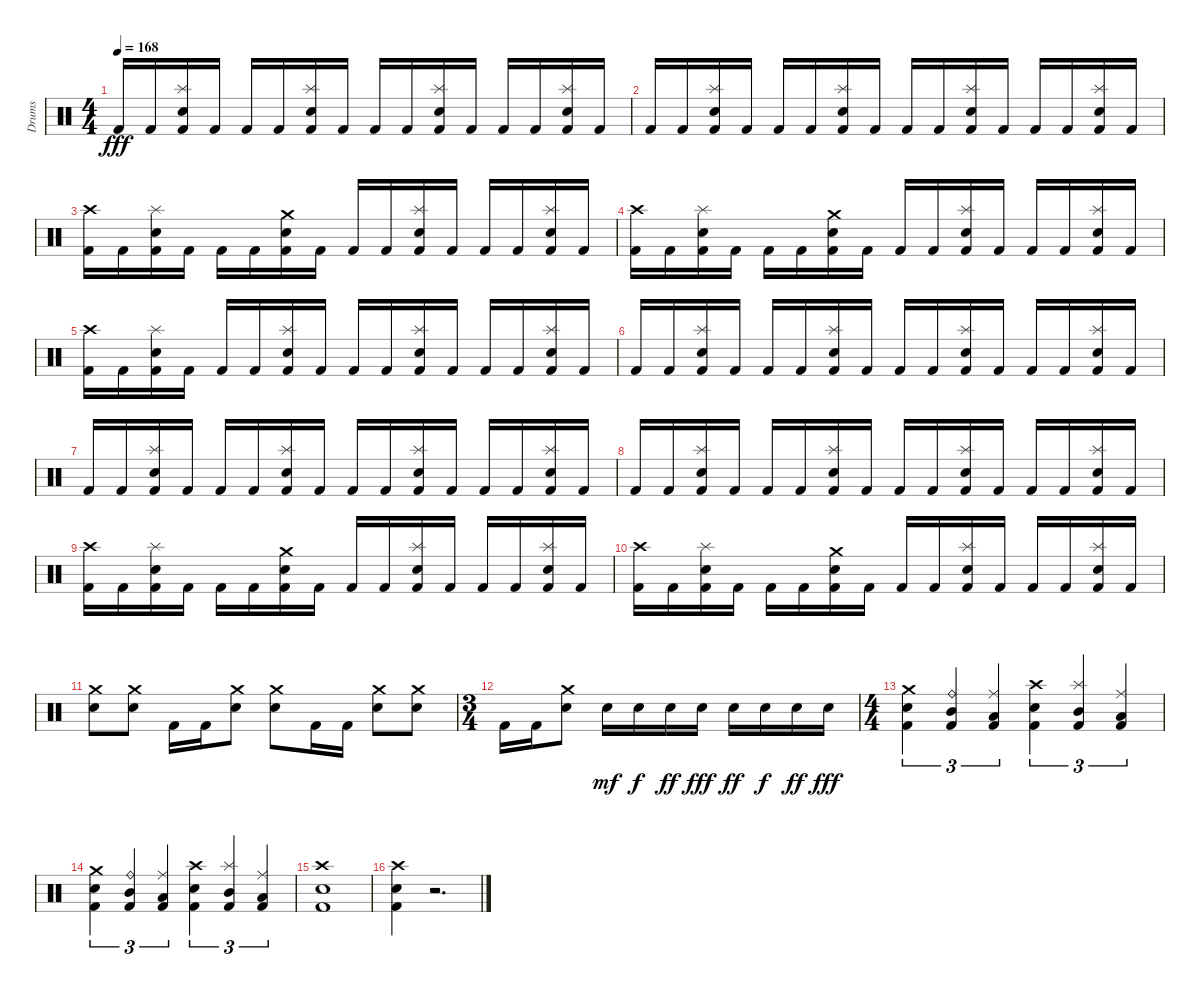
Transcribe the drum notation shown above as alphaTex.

\track ("Drums" "Drums") {instrument percussion}
\staff {score}
\articulation defaults
\ts (4 4)
\tempo 168
\clef neutral
\ks aminor "Kick (hit) 2".16{dy fff} "Kick (hit) 2".16
("Splash (hit)" "Snare (hit) 2" "Kick (hit) 2").16 "Kick (hit) 2".16 "Kick (hit) 2".16 "Kick (hit) 2".16 ("Splash (hit)" "Snare (hit) 2" "Kick (hit) 2").16 "Kick (hit) 2".16 "Kick (hit) 2".16 "Kick (hit) 2".16 ("Splash (hit)" "Snare (hit) 2" "Kick (hit) 2").16 "Kick (hit) 2".16 "Kick (hit) 2".16 "Kick (hit) 2".16 ("Splash (hit)" "Snare (hit) 2" "Kick (hit) 2").16 "Kick (hit) 2".16 |
"Kick (hit) 2".16 "Kick (hit) 2".16 ("Splash (hit)" "Snare (hit) 2" "Kick (hit) 2").16 "Kick (hit) 2".16 "Kick (hit) 2".16 "Kick (hit) 2".16 ("Splash (hit)" "Snare (hit) 2" "Kick (hit) 2").16 "Kick (hit) 2".16 "Kick (hit) 2".16 "Kick (hit) 2".16 ("Splash (hit)" "Snare (hit) 2" "Kick (hit) 2").16 "Kick (hit) 2".16 "Kick (hit) 2".16 "Kick (hit) 2".16 ("Splash (hit)" "Snare (hit) 2" "Kick (hit) 2").16 "Kick (hit) 2".16 |
("Crash high (hit)" "Kick (hit) 2").16 "Kick (hit) 2".16 ("Splash (hit)" "Snare (hit) 2" "Kick (hit) 2").16 "Kick (hit) 2".16 "Kick (hit) 2".16 "Kick (hit) 2".16 ("Crash medium (hit)" "Snare (hit) 2" "Kick (hit) 2").16 "Kick (hit) 2".16 "Kick (hit) 2".16 "Kick (hit) 2".16 ("Splash (hit)" "Snare (hit) 2" "Kick (hit) 2").16 "Kick (hit) 2".16 "Kick (hit) 2".16 "Kick (hit) 2".16 ("Splash (hit)" "Snare (hit) 2" "Kick (hit) 2").16 "Kick (hit) 2".16 |
("Crash high (hit)" "Kick (hit) 2").16 "Kick (hit) 2".16 ("Splash (hit)" "Snare (hit) 2" "Kick (hit) 2").16 "Kick (hit) 2".16 "Kick (hit) 2".16 "Kick (hit) 2".16 ("Crash medium (hit)" "Snare (hit) 2" "Kick (hit) 2").16 "Kick (hit) 2".16 "Kick (hit) 2".16 "Kick (hit) 2".16 ("Splash (hit)" "Snare (hit) 2" "Kick (hit) 2").16 "Kick (hit) 2".16 "Kick (hit) 2".16 "Kick (hit) 2".16 ("Splash (hit)" "Snare (hit) 2" "Kick (hit) 2").16 "Kick (hit) 2".16 |
("Crash high (hit)" "Kick (hit) 2").16 "Kick (hit) 2".16 ("Splash (hit)" "Snare (hit) 2" "Kick (hit) 2").16 "Kick (hit) 2".16 "Kick (hit) 2".16 "Kick (hit) 2".16 ("Splash (hit)" "Snare (hit) 2" "Kick (hit) 2").16 "Kick (hit) 2".16 "Kick (hit) 2".16 "Kick (hit) 2".16 ("Splash (hit)" "Snare (hit) 2" "Kick (hit) 2").16 "Kick (hit) 2".16 "Kick (hit) 2".16 "Kick (hit) 2".16 ("Splash (hit)" "Snare (hit) 2" "Kick (hit) 2").16 "Kick (hit) 2".16 |
"Kick (hit) 2".16 "Kick (hit) 2".16 ("Splash (hit)" "Snare (hit) 2" "Kick (hit) 2").16 "Kick (hit) 2".16 "Kick (hit) 2".16 "Kick (hit) 2".16 ("Splash (hit)" "Snare (hit) 2" "Kick (hit) 2").16 "Kick (hit) 2".16 "Kick (hit) 2".16 "Kick (hit) 2".16 ("Splash (hit)" "Snare (hit) 2" "Kick (hit) 2").16 "Kick (hit) 2".16 "Kick (hit) 2".16 "Kick (hit) 2".16 ("Splash (hit)" "Snare (hit) 2" "Kick (hit) 2").16 "Kick (hit) 2".16 |
"Kick (hit) 2".16 "Kick (hit) 2".16 ("Splash (hit)" "Snare (hit) 2" "Kick (hit) 2").16 "Kick (hit) 2".16 "Kick (hit) 2".16 "Kick (hit) 2".16 ("Splash (hit)" "Snare (hit) 2" "Kick (hit) 2").16 "Kick (hit) 2".16 "Kick (hit) 2".16 "Kick (hit) 2".16 ("Splash (hit)" "Snare (hit) 2" "Kick (hit) 2").16 "Kick (hit) 2".16 "Kick (hit) 2".16 "Kick (hit) 2".16 ("Splash (hit)" "Snare (hit) 2" "Kick (hit) 2").16 "Kick (hit) 2".16 |
"Kick (hit) 2".16 "Kick (hit) 2".16 ("Splash (hit)" "Snare (hit) 2" "Kick (hit) 2").16 "Kick (hit) 2".16 "Kick (hit) 2".16 "Kick (hit) 2".16 ("Splash (hit)" "Snare (hit) 2" "Kick (hit) 2").16 "Kick (hit) 2".16 "Kick (hit) 2".16 "Kick (hit) 2".16 ("Splash (hit)" "Snare (hit) 2" "Kick (hit) 2").16 "Kick (hit) 2".16 "Kick (hit) 2".16 "Kick (hit) 2".16 ("Splash (hit)" "Snare (hit) 2" "Kick (hit) 2").16 "Kick (hit) 2".16 |
("Crash high (hit)" "Kick (hit) 2").16 "Kick (hit) 2".16 ("Splash (hit)" "Snare (hit) 2" "Kick (hit) 2").16 "Kick (hit) 2".16 "Kick (hit) 2".16 "Kick (hit) 2".16 ("Crash medium (hit)" "Snare (hit) 2" "Kick (hit) 2").16 "Kick (hit) 2".16 "Kick (hit) 2".16 "Kick (hit) 2".16 ("Splash (hit)" "Snare (hit) 2" "Kick (hit) 2").16 "Kick (hit) 2".16 "Kick (hit) 2".16 "Kick (hit) 2".16 ("Splash (hit)" "Snare (hit) 2" "Kick (hit) 2").16 "Kick (hit) 2".16 |
("Crash high (hit)" "Kick (hit) 2").16 "Kick (hit) 2".16 ("Splash (hit)" "Snare (hit) 2" "Kick (hit) 2").16 "Kick (hit) 2".16 "Kick (hit) 2".16 "Kick (hit) 2".16 ("Crash medium (hit)" "Snare (hit) 2" "Kick (hit) 2").16 "Kick (hit) 2".16 "Kick (hit) 2".16 "Kick (hit) 2".16 ("Splash (hit)" "Snare (hit) 2" "Kick (hit) 2").16 "Kick (hit) 2".16 "Kick (hit) 2".16 "Kick (hit) 2".16 ("Splash (hit)" "Snare (hit) 2" "Kick (hit) 2").16 "Kick (hit) 2".16 |
("Crash medium (hit)" "Snare (hit) 2").8 ("Crash medium (hit)" "Snare (hit) 2").8 "Kick (hit) 2".16 "Kick (hit) 2".16 ("Crash medium (hit)" "Snare (hit) 2").8 ("Crash medium (hit)" "Snare (hit) 2").8 "Kick (hit) 2".16 "Kick (hit) 2".16 ("Crash medium (hit)" "Snare (hit) 2").8 ("Crash medium (hit)" "Snare (hit) 2").8 |
\ts (3 4)
"Kick (hit) 2".16 "Kick (hit) 2".16 ("Crash medium (hit)" "Snare (hit) 2").8 "Snare (hit) 2".16{dy mf} "Snare (hit) 2".16{dy f} "Snare (hit) 2".16{dy ff} "Snare (hit) 2".16{dy fff} "Snare (hit) 2".16{dy ff} "Snare (hit) 2".16{dy f} "Snare (hit) 2".16{dy ff} "Snare (hit) 2".16{dy fff} |
\ts (4 4)
("Crash medium (hit)" "Snare (hit) 2" "Kick (hit) 2").4{tu (3 2)} ("Ride (bell)" "Mid Tom (hit)" "Kick (hit) 2").4{tu (3 2)} ("Ride (middle)" "Low Tom (hit)" "Kick (hit) 2").4{tu (3 2)} ("Crash high (hit)" "Snare (hit) 2" "Kick (hit) 2").4{tu (3 2)} ("Splash (hit)" "Mid Tom (hit)" "Kick (hit) 2").4{tu (3 2)} ("Ride (middle)" "Low Tom (hit)" "Kick (hit) 2").4{tu (3 2)} |
("Crash medium (hit)" "Snare (hit) 2" "Kick (hit) 2").4{tu (3 2)} ("Ride (bell)" "Mid Tom (hit)" "Kick (hit) 2").4{tu (3 2)} ("Ride (middle)" "Low Tom (hit)" "Kick (hit) 2").4{tu (3 2)} ("Crash high (hit)" "Snare (hit) 2" "Kick (hit) 2").4{tu (3 2)} ("Splash (hit)" "Mid Tom (hit)" "Kick (hit) 2").4{tu (3 2)} ("Ride (middle)" "Low Tom (hit)" "Kick (hit) 2").4{tu (3 2)} |
("Crash high (hit)" "Snare (hit) 2" "Kick (hit) 2").1 |
("Crash high (hit)" "Snare (hit) 2" "Kick (hit) 2").4 r.2{d}
